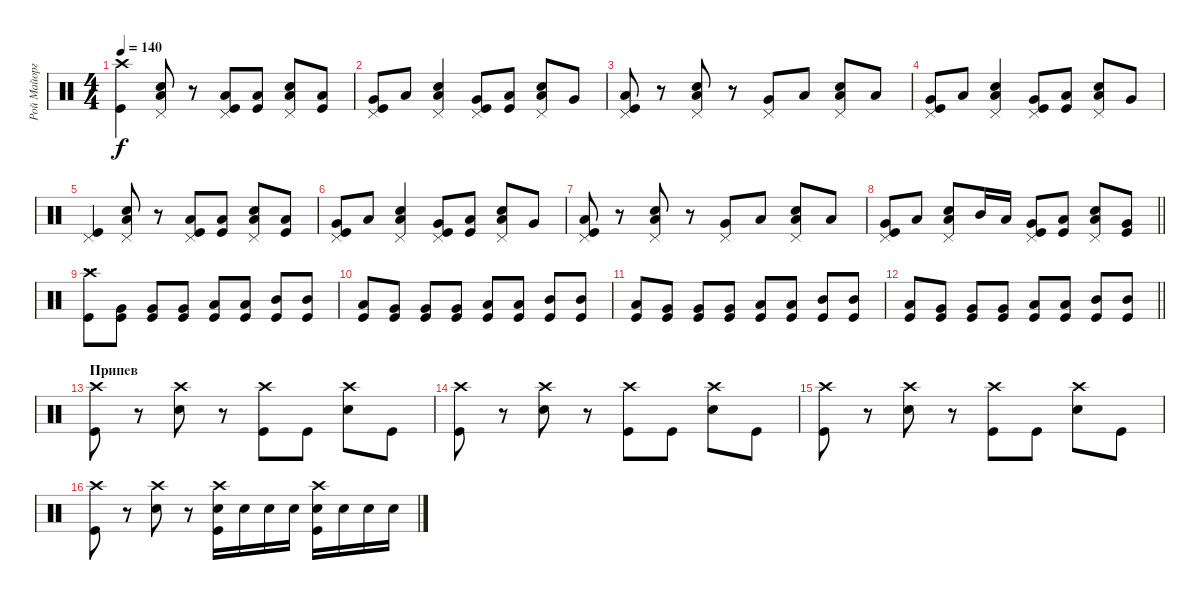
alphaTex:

\track ("Рой Майорга" "Рой Майорг") {instrument percussion}
\staff {score}
\articulation defaults
\ts (4 4)
\tempo 140
\clef neutral
\ks c
("Crash high (hit)" "Kick (hit)").4{dy f} ("Pedal Hi-Hat (hit)" "Low Tom (hit)" "Snare (hit) 2").8 r.8 ("Pedal Hi-Hat (hit)" "Low Tom (hit)" "Kick (hit)").8 ("Low Floor Tom (hit)" "Kick (hit)").8 ("Pedal Hi-Hat (hit)" "Low Tom (hit)" "Snare (hit) 2").8 ("Low Floor Tom (hit)" "Kick (hit)").8 |
("Pedal Hi-Hat (hit)" "Very Low Tom (hit)" "Kick (hit)").8 "Low Tom (hit)".8 ("Pedal Hi-Hat (hit)" "Low Tom (hit)" "Snare (hit) 2").4 ("Pedal Hi-Hat (hit)" "Very Low Tom (hit)" "Kick (hit)").8 ("Low Tom (hit)" "Kick (hit)").8 ("Pedal Hi-Hat (hit)" "Low Tom (hit)" "Snare (hit) 2").8 "Very Low Tom (hit)".8 |
("Pedal Hi-Hat (hit)" "Low Tom (hit)" "Kick (hit)").8 r.8 ("Pedal Hi-Hat (hit)" "Low Tom (hit)" "Snare (hit) 2").8 r.8 ("Pedal Hi-Hat (hit)" "Very Low Tom (hit)").8 "Low Tom (hit)".8 ("Pedal Hi-Hat (hit)" "Low Tom (hit)" "Snare (hit) 2").8 "Low Floor Tom (hit)".8 |
("Pedal Hi-Hat (hit)" "Very Low Tom (hit)" "Kick (hit)").8 "Low Tom (hit)".8 ("Pedal Hi-Hat (hit)" "Low Tom (hit)" "Snare (hit) 2").4 ("Pedal Hi-Hat (hit)" "Very Low Tom (hit)" "Kick (hit)").8 ("Low Tom (hit)" "Kick (hit)").8 ("Pedal Hi-Hat (hit)" "Low Tom (hit)" "Snare (hit) 2").8 "Very Low Tom (hit)".8 |
("Pedal Hi-Hat (hit)" "Kick (hit)").4 ("Pedal Hi-Hat (hit)" "Low Tom (hit)" "Snare (hit) 2").8 r.8 ("Pedal Hi-Hat (hit)" "Low Tom (hit)" "Kick (hit)").8 ("Low Floor Tom (hit)" "Kick (hit)").8 ("Pedal Hi-Hat (hit)" "Low Tom (hit)" "Snare (hit) 2").8 ("Low Floor Tom (hit)" "Kick (hit)").8 |
("Pedal Hi-Hat (hit)" "Very Low Tom (hit)" "Kick (hit)").8 "Low Tom (hit)".8 ("Pedal Hi-Hat (hit)" "Low Tom (hit)" "Snare (hit) 2").4 ("Pedal Hi-Hat (hit)" "Very Low Tom (hit)" "Kick (hit)").8 ("Low Tom (hit)" "Kick (hit)").8 ("Pedal Hi-Hat (hit)" "Low Tom (hit)" "Snare (hit) 2").8 "Very Low Tom (hit)".8 |
("Pedal Hi-Hat (hit)" "Low Tom (hit)" "Kick (hit)").8 r.8 ("Pedal Hi-Hat (hit)" "Low Tom (hit)" "Snare (hit) 2").8 r.8 ("Pedal Hi-Hat (hit)" "Very Low Tom (hit)").8 "Low Tom (hit)".8 ("Pedal Hi-Hat (hit)" "Low Tom (hit)" "Snare (hit) 2").8 "Low Floor Tom (hit)".8 |
\barLineRight lightlight
("Pedal Hi-Hat (hit)" "Very Low Tom (hit)" "Kick (hit)").8 "Low Tom (hit)".8 ("Pedal Hi-Hat (hit)" "Low Tom (hit)" "Snare (hit) 2").8 "Mid Tom (hit)".16 "Low Tom (hit)".16 ("Pedal Hi-Hat (hit)" "Very Low Tom (hit)" "Kick (hit)").8 ("Low Tom (hit)" "Kick (hit)").8 ("Pedal Hi-Hat (hit)" "Low Tom (hit)" "Snare (hit) 2").8 ("Very Low Tom (hit)" "Kick (hit)").8 |
\section ("" "....")
("Crash high (hit)" "Kick (hit)").8 ("Very Low Tom (hit)" "Kick (hit)").8 ("Very Low Tom (hit)" "Kick (hit)").8 ("Very Low Tom (hit)" "Kick (hit)").8 ("Low Tom (hit)" "Kick (hit)").8 ("Low Tom (hit)" "Kick (hit)").8 ("Mid Tom (hit)" "Kick (hit)").8 ("Mid Tom (hit)" "Kick (hit)").8 |
("Low Tom (hit)" "Kick (hit)").8 ("Very Low Tom (hit)" "Kick (hit)").8 ("Very Low Tom (hit)" "Kick (hit)").8 ("Very Low Tom (hit)" "Kick (hit)").8 ("Low Tom (hit)" "Kick (hit)").8 ("Low Tom (hit)" "Kick (hit)").8 ("Mid Tom (hit)" "Kick (hit)").8 ("Mid Tom (hit)" "Kick (hit)").8 |
("Low Tom (hit)" "Kick (hit)").8 ("Very Low Tom (hit)" "Kick (hit)").8 ("Very Low Tom (hit)" "Kick (hit)").8 ("Very Low Tom (hit)" "Kick (hit)").8 ("Low Tom (hit)" "Kick (hit)").8 ("Low Tom (hit)" "Kick (hit)").8 ("Mid Tom (hit)" "Kick (hit)").8 ("Mid Tom (hit)" "Kick (hit)").8 |
\barLineRight lightlight
("Low Tom (hit)" "Kick (hit)").8 ("Very Low Tom (hit)" "Kick (hit)").8 ("Very Low Tom (hit)" "Kick (hit)").8 ("Very Low Tom (hit)" "Kick (hit)").8 ("Low Tom (hit)" "Kick (hit)").8 ("Low Tom (hit)" "Kick (hit)").8 ("Mid Tom (hit)" "Kick (hit)").8 ("Mid Tom (hit)" "Kick (hit)").8 |
\section ("" "Припев")
("Crash high (hit)" "Kick (hit)").8 r.8 ("Crash high (hit)" "Snare (hit) 2").8 r.8 ("Crash high (hit)" "Kick (hit)").8 "Kick (hit)".8 ("Crash high (hit)" "Snare (hit) 2").8 "Kick (hit)".8 |
("Crash high (hit)" "Kick (hit)").8 r.8 ("Crash high (hit)" "Snare (hit) 2").8 r.8 ("Crash high (hit)" "Kick (hit)").8 "Kick (hit)".8 ("Crash high (hit)" "Snare (hit) 2").8 "Kick (hit)".8 |
("Crash high (hit)" "Kick (hit)").8 r.8 ("Crash high (hit)" "Snare (hit) 2").8 r.8 ("Crash high (hit)" "Kick (hit)").8 "Kick (hit)".8 ("Crash high (hit)" "Snare (hit) 2").8 "Kick (hit)".8 |
("Crash high (hit)" "Kick (hit)").8 r.8 ("Crash high (hit)" "Snare (hit) 2").8 r.8 ("Crash high (hit)" "Snare (hit) 2" "Kick (hit)").16 "Snare (hit) 2".16 "Snare (hit) 2".16 "Snare (hit) 2".16 ("Crash high (hit)" "Snare (hit) 2" "Kick (hit)").16 "Snare (hit) 2".16 "Snare (hit) 2".16 "Snare (hit) 2".16
